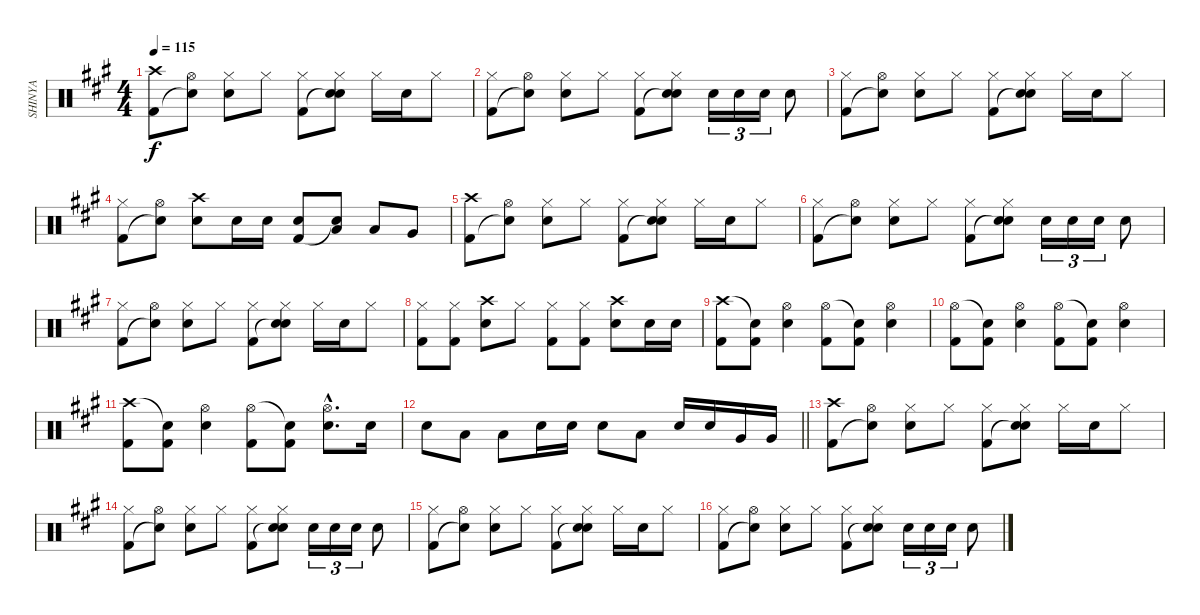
\track ("SHINYA" "SHINYA") {instrument percussion}
\staff {score}
\articulation defaults
\ts (4 4)
\tempo 115
\clef neutral
\ks a
("Crash high (hit)" "Kick (hit) 2").8{dy f} ("Hi-Hat (open)" "Snare (hit)"{t}).8 ("Hi-Hat (closed)" "Electric Snare (hit)").8 "Hi-Hat (closed)".8 ("Hi-Hat (closed)" "Kick (hit) 2").8 ("Hi-Hat (closed)" "Snare (hit)"{t} "Electric Snare (hit)").8 "Hi-Hat (closed)".16 "Electric Snare (hit)".16 "Hi-Hat (closed)".8 |
("Hi-Hat (closed)" "Kick (hit) 2").8 ("Hi-Hat (open)" "Snare (hit)"{t}).8 ("Hi-Hat (closed)" "Electric Snare (hit)").8 "Hi-Hat (closed)".8 ("Hi-Hat (closed)" "Kick (hit) 2").8 ("Hi-Hat (closed)" "Snare (hit)"{t} "Electric Snare (hit)").8 "Electric Snare (hit)".16{tu (3 2)} "Electric Snare (hit)".16{tu (3 2)} "Electric Snare (hit)".16{tu (3 2)} "Electric Snare (hit)".8 |
("Hi-Hat (closed)" "Kick (hit) 2").8 ("Hi-Hat (open)" "Snare (hit)"{t}).8 ("Hi-Hat (closed)" "Electric Snare (hit)").8 "Hi-Hat (closed)".8 ("Hi-Hat (closed)" "Kick (hit) 2").8 ("Hi-Hat (closed)" "Snare (hit)"{t} "Electric Snare (hit)").8 "Hi-Hat (closed)".16 "Electric Snare (hit)".16 "Hi-Hat (closed)".8 |
("Hi-Hat (closed)" "Kick (hit) 2").8 ("Hi-Hat (open)" "Snare (hit)"{t}).8 ("Crash high (hit)" "Electric Snare (hit)").8 "Electric Snare (hit)".16 "Electric Snare (hit)".16 ("Electric Snare (hit)" "Kick (hit) 2").8 ("Low Tom (hit)" "Snare (hit)"{t}).8 "Low Tom (hit)".8 "Very Low Tom (hit)".8 |
("Crash high (hit)" "Kick (hit) 2").8 ("Hi-Hat (open)" "Snare (hit)"{t}).8 ("Hi-Hat (closed)" "Electric Snare (hit)").8 "Hi-Hat (closed)".8 ("Hi-Hat (closed)" "Kick (hit) 2").8 ("Hi-Hat (closed)" "Snare (hit)"{t} "Electric Snare (hit)").8 "Hi-Hat (closed)".16 "Electric Snare (hit)".16 "Hi-Hat (closed)".8 |
("Hi-Hat (closed)" "Kick (hit) 2").8 ("Hi-Hat (open)" "Snare (hit)"{t}).8 ("Hi-Hat (closed)" "Electric Snare (hit)").8 "Hi-Hat (closed)".8 ("Hi-Hat (closed)" "Kick (hit) 2").8 ("Hi-Hat (closed)" "Snare (hit)"{t} "Electric Snare (hit)").8 "Electric Snare (hit)".16{tu (3 2)} "Electric Snare (hit)".16{tu (3 2)} "Electric Snare (hit)".16{tu (3 2)} "Electric Snare (hit)".8 |
("Hi-Hat (closed)" "Kick (hit) 2").8 ("Hi-Hat (open)" "Snare (hit)"{t}).8 ("Hi-Hat (closed)" "Electric Snare (hit)").8 "Hi-Hat (closed)".8 ("Hi-Hat (closed)" "Kick (hit) 2").8 ("Hi-Hat (closed)" "Snare (hit)"{t} "Electric Snare (hit)").8 "Hi-Hat (closed)".16 "Electric Snare (hit)".16 "Hi-Hat (closed)".8 |
("Hi-Hat (closed)" "Kick (hit) 2").8 ("Hi-Hat (closed)" "Kick (hit) 2").8 ("Crash high (hit)" "Electric Snare (hit)").8 "Hi-Hat (closed)".8 ("Hi-Hat (closed)" "Kick (hit) 2").8 ("Hi-Hat (closed)" "Kick (hit) 2").8 ("Crash high (hit)" "Electric Snare (hit)").8 "Electric Snare (hit)".16 "Electric Snare (hit)".16 |
("Crash high (hit)" "Kick (hit) 2").8 ("Snare (hit)"{t} "Kick (hit) 2").8 ("Hi-Hat (open)" "Electric Snare (hit)").4 ("Hi-Hat (open)" "Kick (hit) 2").8 ("Snare (hit)"{t} "Kick (hit) 2").8 ("Hi-Hat (open)" "Electric Snare (hit)").4 |
("Hi-Hat (open)" "Kick (hit) 2").8 ("Snare (hit)"{t} "Kick (hit) 2").8 ("Hi-Hat (open)" "Electric Snare (hit)").4 ("Hi-Hat (open)" "Kick (hit) 2").8 ("Snare (hit)"{t} "Kick (hit) 2").8 ("Hi-Hat (open)" "Electric Snare (hit)").4 |
("Crash high (hit)" "Kick (hit) 2").8 ("Snare (hit)"{t} "Kick (hit) 2").8 ("Hi-Hat (open)" "Electric Snare (hit)").4 ("Hi-Hat (open)" "Kick (hit) 2").8 ("Snare (hit)"{t} "Kick (hit) 2").8 ("Hi-Hat (open)"{hac} "Electric Snare (hit)"{hac}).8{d} "Electric Snare (hit)".16 |
\barLineRight lightlight "Electric Snare (hit)".8 "Low Tom (hit)".8 "Low Tom (hit)".8 "Electric Snare (hit)".16 "Electric Snare (hit)".16 "Electric Snare (hit)".8 "Low Tom (hit)".8 "Electric Snare (hit)".16 "Electric Snare (hit)".16 "Very Low Tom (hit)".16 "Very Low Tom (hit)".16
|
("Crash high (hit)" "Kick (hit) 2").8 ("Hi-Hat (open)" "Snare (hit)"{t}).8 ("Hi-Hat (closed)" "Electric Snare (hit)").8 "Hi-Hat (closed)".8 ("Hi-Hat (closed)" "Kick (hit) 2").8 ("Hi-Hat (closed)" "Snare (hit)"{t} "Electric Snare (hit)").8 "Hi-Hat (closed)".16 "Electric Snare (hit)".16 "Hi-Hat (closed)".8 |
("Hi-Hat (closed)" "Kick (hit) 2").8 ("Hi-Hat (open)" "Snare (hit)"{t}).8 ("Hi-Hat (closed)" "Electric Snare (hit)").8 "Hi-Hat (closed)".8 ("Hi-Hat (closed)" "Kick (hit) 2").8 ("Hi-Hat (closed)" "Snare (hit)"{t} "Electric Snare (hit)").8 "Electric Snare (hit)".16{tu (3 2)} "Electric Snare (hit)".16{tu (3 2)} "Electric Snare (hit)".16{tu (3 2)} "Electric Snare (hit)".8 |
("Hi-Hat (closed)" "Kick (hit) 2").8 ("Hi-Hat (open)" "Snare (hit)"{t}).8 ("Hi-Hat (closed)" "Electric Snare (hit)").8 "Hi-Hat (closed)".8 ("Hi-Hat (closed)" "Kick (hit) 2").8 ("Hi-Hat (closed)" "Snare (hit)"{t} "Electric Snare (hit)").8 "Hi-Hat (closed)".16 "Electric Snare (hit)".16 "Hi-Hat (closed)".8 |
("Hi-Hat (closed)" "Kick (hit) 2").8 ("Hi-Hat (open)" "Snare (hit)"{t}).8 ("Hi-Hat (closed)" "Electric Snare (hit)").8 "Hi-Hat (closed)".8 ("Hi-Hat (closed)" "Kick (hit) 2").8 ("Hi-Hat (closed)" "Snare (hit)"{t} "Electric Snare (hit)").8 "Electric Snare (hit)".16{tu (3 2)} "Electric Snare (hit)".16{tu (3 2)} "Electric Snare (hit)".16{tu (3 2)} "Electric Snare (hit)".8
